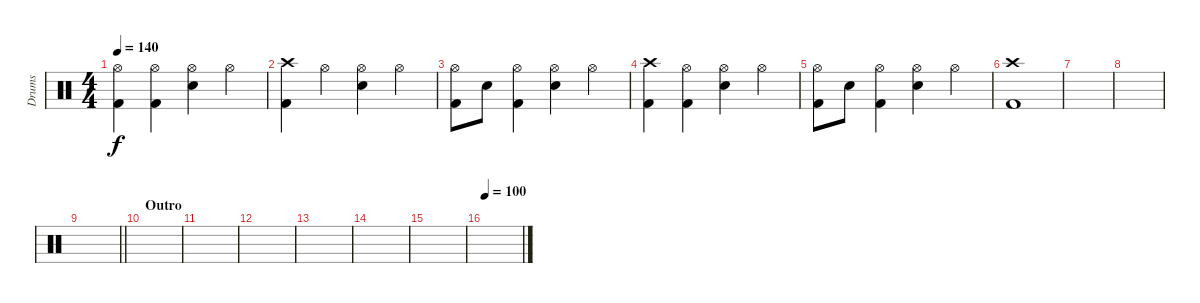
\track ("Drums" "Drums") {instrument percussion}
\staff {score}
\articulation defaults
\ts (4 4)
\tempo 140
\clef neutral
\ks c
("Kick (hit) 2" "Hi-Hat (open)").4{dy f} ("Kick (hit) 2" "Hi-Hat (open)").4 ("Snare (hit) 2" "Hi-Hat (open)").4 "Hi-Hat (open)".4 |
("Crash high (hit)" "Kick (hit) 2").4 "Hi-Hat (open)".4 ("Snare (hit) 2" "Hi-Hat (open)").4 "Hi-Hat (open)".4 |
("Kick (hit) 2" "Hi-Hat (open)").8 "Snare (hit) 2".8 ("Kick (hit) 2" "Hi-Hat (open)").4 ("Snare (hit) 2" "Hi-Hat (open)").4 "Hi-Hat (open)".4 |
("Crash high (hit)" "Kick (hit) 2").4 ("Kick (hit) 2" "Hi-Hat (open)").4 ("Snare (hit) 2" "Hi-Hat (open)").4 "Hi-Hat (open)".4 |
("Kick (hit) 2" "Hi-Hat (open)").8 "Snare (hit) 2".8 ("Kick (hit) 2" "Hi-Hat (open)").4 ("Snare (hit) 2" "Hi-Hat (open)").4 "Hi-Hat (open)".4 |
("Crash high (hit)" "Kick (hit) 2").1 |
|
|
\barLineRight lightlight
|
\section ("" "Outro")
|
|
|
|
|
|
\tempo 100
